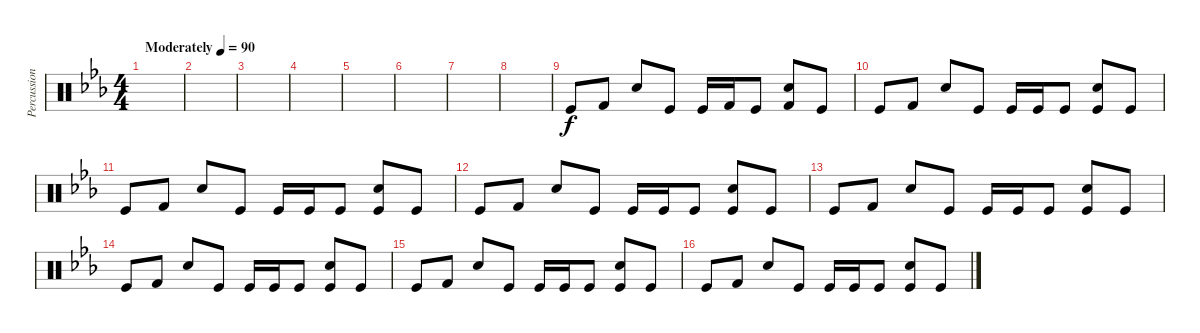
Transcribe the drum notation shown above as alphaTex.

\track ("Percussion" "Percussion") {instrument percussion}
\staff {score}
\articulation defaults
\ts (4 4)
\tempo (90 "Moderately")
\clef neutral
\ks cminor
|
|
|
|
|
|
|
|
"Kick (hit)".8 "Kick (hit) 2".8 "Electric Snare (hit)".8 "Kick (hit)".8 "Kick (hit)".16 "Kick (hit) 2".16 "Kick (hit)".8 ("Electric Snare (hit)" "Kick (hit) 2").8 "Kick (hit)".8 |
"Kick (hit)".8 "Kick (hit) 2".8 "Electric Snare (hit)".8 "Kick (hit)".8 "Kick (hit)".16 "Kick (hit)".16 "Kick (hit)".8 ("Electric Snare (hit)" "Kick (hit)").8 "Kick (hit)".8 |
"Kick (hit)".8 "Kick (hit) 2".8 "Electric Snare (hit)".8 "Kick (hit)".8 "Kick (hit)".16 "Kick (hit)".16 "Kick (hit)".8 ("Electric Snare (hit)" "Kick (hit)").8 "Kick (hit)".8 |
"Kick (hit)".8 "Kick (hit) 2".8 "Electric Snare (hit)".8 "Kick (hit)".8 "Kick (hit)".16 "Kick (hit)".16 "Kick (hit)".8 ("Electric Snare (hit)" "Kick (hit)").8 "Kick (hit)".8 |
"Kick (hit)".8 "Kick (hit) 2".8 "Electric Snare (hit)".8 "Kick (hit)".8 "Kick (hit)".16 "Kick (hit)".16 "Kick (hit)".8 ("Electric Snare (hit)" "Kick (hit)").8 "Kick (hit)".8 |
"Kick (hit)".8 "Kick (hit) 2".8 "Electric Snare (hit)".8 "Kick (hit)".8 "Kick (hit)".16 "Kick (hit)".16 "Kick (hit)".8 ("Electric Snare (hit)" "Kick (hit)").8 "Kick (hit)".8 |
"Kick (hit)".8 "Kick (hit) 2".8 "Electric Snare (hit)".8 "Kick (hit)".8 "Kick (hit)".16 "Kick (hit)".16 "Kick (hit)".8 ("Electric Snare (hit)" "Kick (hit)").8 "Kick (hit)".8 |
"Kick (hit)".8 "Kick (hit) 2".8 "Electric Snare (hit)".8 "Kick (hit)".8 "Kick (hit)".16 "Kick (hit)".16 "Kick (hit)".8 ("Electric Snare (hit)" "Kick (hit)").8 "Kick (hit)".8
